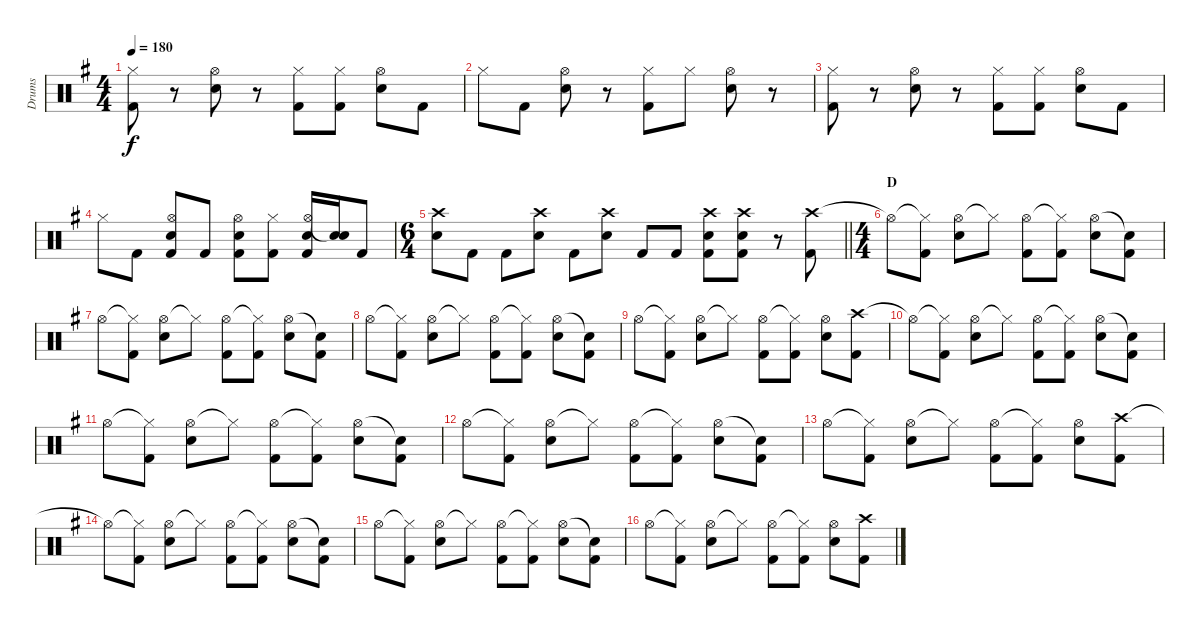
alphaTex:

\track ("Drums" "Drums") {instrument percussion}
\staff {score}
\articulation defaults
\ts (4 4)
\tempo 180
\clef neutral
\ks g
("Hi-Hat (closed)" "Kick (hit) 2").8{dy f} r.8 ("Hi-Hat (open)" "Snare (hit) 2").8 r.8 ("Hi-Hat (closed)" "Kick (hit) 2").8 ("Hi-Hat (closed)" "Kick (hit) 2").8 ("Hi-Hat (open)" "Snare (hit) 2").8 "Kick (hit) 2".8 |
"Hi-Hat (closed)".8 "Kick (hit) 2".8 ("Hi-Hat (open)" "Snare (hit) 2").8 r.8 ("Hi-Hat (closed)" "Kick (hit) 2").8 "Hi-Hat (closed)".8 ("Hi-Hat (open)" "Snare (hit) 2").8 r.8 |
("Hi-Hat (closed)" "Kick (hit) 2").8 r.8 ("Hi-Hat (open)" "Snare (hit) 2").8 r.8 ("Hi-Hat (closed)" "Kick (hit) 2").8 ("Hi-Hat (closed)" "Kick (hit) 2").8 ("Hi-Hat (open)" "Snare (hit) 2").8 "Kick (hit) 2".8 |
"Hi-Hat (closed)".8 "Kick (hit) 2".8 ("Hi-Hat (open)" "Snare (hit) 2" "Kick (hit) 2").8 "Kick (hit) 2".8 ("Hi-Hat (open)" "Snare (hit) 2" "Kick (hit) 2").8 ("Hi-Hat (closed)" "Kick (hit) 2").8 ("Hi-Hat (open)" "Snare (hit) 2" "Kick (hit) 2").16 ("Snare (hit)"{t} "Snare (hit) 2").16 "Kick (hit) 2".8 |
\ts (6 4)
\barLineRight lightlight
("Crash high (hit)" "Snare (hit) 2").8 "Kick (hit) 2".8 "Kick (hit) 2".8 ("Crash high (hit)" "Snare (hit) 2").8 "Kick (hit) 2".8 ("Crash high (hit)" "Snare (hit) 2").8 "Kick (hit) 2".8 "Kick (hit) 2".8 ("Crash high (hit)" "Snare (hit) 2" "Kick (hit) 2").8 ("Crash high (hit)" "Snare (hit) 2" "Kick (hit) 2").8 r.8 ("Crash high (hit)" "Kick (hit) 2").8 |
\ts (4 4)
\section ("" "D")
"Hi-Hat (open)"{t}.8 ("Hi-Hat (closed)"{t} "Kick (hit) 2").8 ("Hi-Hat (open)" "Snare (hit) 2").8 "Hi-Hat (closed)"{t}.8 ("Hi-Hat (open)" "Kick (hit) 2").8 ("Hi-Hat (closed)"{t} "Kick (hit) 2").8 ("Hi-Hat (open)" "Snare (hit) 2").8 ("Snare (hit)"{t} "Kick (hit) 2").8 |
"Hi-Hat (open)".8 ("Hi-Hat (closed)"{t} "Kick (hit) 2").8 ("Hi-Hat (open)" "Snare (hit) 2").8 "Hi-Hat (closed)"{t}.8 ("Hi-Hat (open)" "Kick (hit) 2").8 ("Hi-Hat (closed)"{t} "Kick (hit) 2").8 ("Hi-Hat (open)" "Snare (hit) 2").8 ("Snare (hit)"{t} "Kick (hit) 2").8 |
"Hi-Hat (open)".8 ("Hi-Hat (closed)"{t} "Kick (hit) 2").8 ("Hi-Hat (open)" "Snare (hit) 2").8 "Hi-Hat (closed)"{t}.8 ("Hi-Hat (open)" "Kick (hit) 2").8 ("Hi-Hat (closed)"{t} "Kick (hit) 2").8 ("Hi-Hat (open)" "Snare (hit) 2").8 ("Snare (hit)"{t} "Kick (hit) 2").8 |
"Hi-Hat (open)".8 ("Hi-Hat (closed)"{t} "Kick (hit) 2").8 ("Hi-Hat (open)" "Snare (hit) 2").8 "Hi-Hat (closed)"{t}.8 ("Hi-Hat (open)" "Kick (hit) 2").8 ("Hi-Hat (closed)"{t} "Kick (hit) 2").8 ("Hi-Hat (open)" "Snare (hit) 2").8 ("Crash high (hit)" "Kick (hit) 2").8 |
"Hi-Hat (open)"{t}.8 ("Hi-Hat (closed)"{t} "Kick (hit) 2").8 ("Hi-Hat (open)" "Snare (hit) 2").8 "Hi-Hat (closed)"{t}.8 ("Hi-Hat (open)" "Kick (hit) 2").8 ("Hi-Hat (closed)"{t} "Kick (hit) 2").8 ("Hi-Hat (open)" "Snare (hit) 2").8 ("Snare (hit)"{t} "Kick (hit) 2").8 |
"Hi-Hat (open)".8 ("Hi-Hat (closed)"{t} "Kick (hit) 2").8 ("Hi-Hat (open)" "Snare (hit) 2").8 "Hi-Hat (closed)"{t}.8 ("Hi-Hat (open)" "Kick (hit) 2").8 ("Hi-Hat (closed)"{t} "Kick (hit) 2").8 ("Hi-Hat (open)" "Snare (hit) 2").8 ("Snare (hit)"{t} "Kick (hit) 2").8 |
"Hi-Hat (open)".8 ("Hi-Hat (closed)"{t} "Kick (hit) 2").8 ("Hi-Hat (open)" "Snare (hit) 2").8 "Hi-Hat (closed)"{t}.8 ("Hi-Hat (open)" "Kick (hit) 2").8 ("Hi-Hat (closed)"{t} "Kick (hit) 2").8 ("Hi-Hat (open)" "Snare (hit) 2").8 ("Snare (hit)"{t} "Kick (hit) 2").8 |
"Hi-Hat (open)".8 ("Hi-Hat (closed)"{t} "Kick (hit) 2").8 ("Hi-Hat (open)" "Snare (hit) 2").8 "Hi-Hat (closed)"{t}.8 ("Hi-Hat (open)" "Kick (hit) 2").8 ("Hi-Hat (closed)"{t} "Kick (hit) 2").8 ("Hi-Hat (open)" "Snare (hit) 2").8 ("Crash high (hit)" "Kick (hit) 2").8 |
"Hi-Hat (open)"{t}.8 ("Hi-Hat (closed)"{t} "Kick (hit) 2").8 ("Hi-Hat (open)" "Snare (hit) 2").8 "Hi-Hat (closed)"{t}.8 ("Hi-Hat (open)" "Kick (hit) 2").8 ("Hi-Hat (closed)"{t} "Kick (hit) 2").8 ("Hi-Hat (open)" "Snare (hit) 2").8 ("Snare (hit)"{t} "Kick (hit) 2").8 |
"Hi-Hat (open)".8 ("Hi-Hat (closed)"{t} "Kick (hit) 2").8 ("Hi-Hat (open)" "Snare (hit) 2").8 "Hi-Hat (closed)"{t}.8 ("Hi-Hat (open)" "Kick (hit) 2").8 ("Hi-Hat (closed)"{t} "Kick (hit) 2").8 ("Hi-Hat (open)" "Snare (hit) 2").8 ("Snare (hit)"{t} "Kick (hit) 2").8 |
"Hi-Hat (open)".8 ("Hi-Hat (closed)"{t} "Kick (hit) 2").8 ("Hi-Hat (open)" "Snare (hit) 2").8 "Hi-Hat (closed)"{t}.8 ("Hi-Hat (open)" "Kick (hit) 2").8 ("Hi-Hat (closed)"{t} "Kick (hit) 2").8 ("Hi-Hat (open)" "Snare (hit) 2").8 ("Crash high (hit)" "Kick (hit) 2").8
